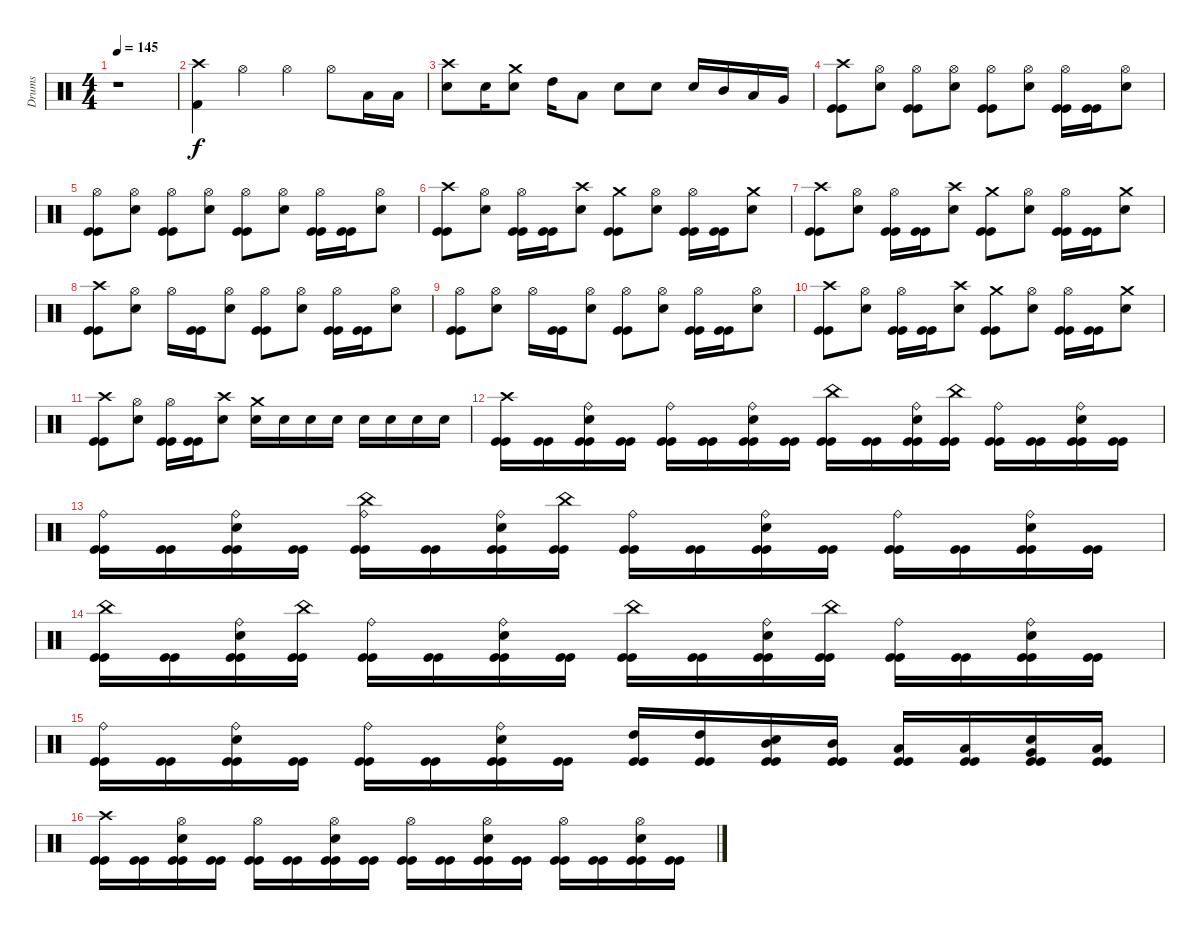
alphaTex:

\track ("Drums" "Drums") {instrument percussion}
\staff {score}
\articulation defaults
\ts (4 4)
\tempo 145
\clef neutral
\ks c
r.1{dy f} |
("Crash high (hit)" "Kick (hit) 2").4 "Hi-Hat (open)".4 "Hi-Hat (open)".4 "Hi-Hat (open)".8 "Low Tom (hit)".16 "Low Floor Tom (hit)".16 |
("Snare (hit) 2" "Crash high (hit)").8 "Snare (hit) 2".16 ("Snare (hit) 2" "Crash medium (hit)").8 "High Tom (hit)".16 "Low Tom (hit)".8 "Snare (hit) 2".8 "Snare (hit) 2".8 "Snare (hit) 2".16 "Mid Tom (hit)".16 "Low Tom (hit)".16 "Very Low Tom (hit)".16 |
("Kick (hit)" "Kick (hit)" "Crash high (hit)").8 ("Snare (hit) 2" "Hi-Hat (open)").8 ("Kick (hit)" "Kick (hit)" "Hi-Hat (open)").8 ("Snare (hit) 2" "Hi-Hat (open)").8 ("Kick (hit)" "Kick (hit)" "Hi-Hat (open)").8 ("Snare (hit) 2" "Hi-Hat (open)").8 ("Kick (hit)" "Kick (hit)" "Hi-Hat (open)").16 ("Kick (hit)" "Kick (hit)").16 ("Snare (hit) 2" "Hi-Hat (open)").8 |
("Kick (hit)" "Kick (hit)" "Hi-Hat (open)").8 ("Snare (hit) 2" "Hi-Hat (open)").8 ("Kick (hit)" "Kick (hit)" "Hi-Hat (open)").8 ("Snare (hit) 2" "Hi-Hat (open)").8 ("Kick (hit)" "Kick (hit)" "Hi-Hat (open)").8 ("Snare (hit) 2" "Hi-Hat (open)").8 ("Kick (hit)" "Kick (hit)" "Hi-Hat (open)").16 ("Kick (hit)" "Kick (hit)").16 ("Snare (hit) 2" "Hi-Hat (open)").8 |
("Kick (hit)" "Kick (hit)" "Crash high (hit)").8 ("Snare (hit) 2" "Hi-Hat (open)").8 ("Kick (hit)" "Kick (hit)" "Hi-Hat (open)").16 ("Kick (hit)" "Kick (hit)").16 ("Snare (hit) 2" "Crash high (hit)").8 ("Kick (hit)" "Kick (hit)" "Crash medium (hit)").8 ("Snare (hit) 2" "Hi-Hat (open)").8 ("Kick (hit)" "Kick (hit)" "Hi-Hat (open)").16 ("Kick (hit)" "Kick (hit)").16 ("Snare (hit) 2" "Crash medium (hit)").8 |
("Kick (hit)" "Kick (hit)" "Crash high (hit)").8 ("Snare (hit) 2" "Hi-Hat (open)").8 ("Kick (hit)" "Kick (hit)" "Hi-Hat (open)").16 ("Kick (hit)" "Kick (hit)").16 ("Snare (hit) 2" "Crash high (hit)").8 ("Kick (hit)" "Kick (hit)" "Crash medium (hit)").8 ("Snare (hit) 2" "Hi-Hat (open)").8 ("Kick (hit)" "Kick (hit)" "Hi-Hat (open)").16 ("Kick (hit)" "Kick (hit)").16 ("Snare (hit) 2" "Crash medium (hit)").8 |
("Kick (hit)" "Kick (hit)" "Crash high (hit)").8 ("Snare (hit) 2" "Hi-Hat (open)").8 "Hi-Hat (open)".16 ("Kick (hit)" "Kick (hit)").16 ("Snare (hit) 2" "Hi-Hat (open)").8 ("Kick (hit)" "Kick (hit)" "Hi-Hat (open)").8 ("Snare (hit) 2" "Hi-Hat (open)").8 ("Kick (hit)" "Kick (hit)" "Hi-Hat (open)").16 ("Kick (hit)" "Kick (hit)").16 ("Snare (hit) 2" "Hi-Hat (open)").8 |
("Kick (hit)" "Kick (hit)" "Hi-Hat (open)").8 ("Snare (hit) 2" "Hi-Hat (open)").8 "Hi-Hat (open)".16 ("Kick (hit)" "Kick (hit)").16 ("Snare (hit) 2" "Hi-Hat (open)").8 ("Kick (hit)" "Kick (hit)" "Hi-Hat (open)").8 ("Snare (hit) 2" "Hi-Hat (open)").8 ("Kick (hit)" "Kick (hit)" "Hi-Hat (open)").16 ("Kick (hit)" "Kick (hit)").16 ("Snare (hit) 2" "Hi-Hat (open)").8 |
("Kick (hit)" "Kick (hit)" "Crash high (hit)").8 ("Snare (hit) 2" "Hi-Hat (open)").8 ("Kick (hit)" "Kick (hit)" "Hi-Hat (open)").16 ("Kick (hit)" "Kick (hit)").16 ("Snare (hit) 2" "Crash high (hit)").8 ("Kick (hit)" "Kick (hit)" "Crash medium (hit)").8 ("Snare (hit) 2" "Hi-Hat (open)").8 ("Kick (hit)" "Kick (hit)" "Hi-Hat (open)").16 ("Kick (hit)" "Kick (hit)").16 ("Snare (hit) 2" "Crash medium (hit)").8 |
("Kick (hit)" "Kick (hit)" "Crash high (hit)").8 ("Snare (hit) 2" "Hi-Hat (open)").8 ("Kick (hit)" "Kick (hit)" "Hi-Hat (open)").16 ("Kick (hit)" "Kick (hit)").16 ("Snare (hit) 2" "Crash high (hit)").8 ("Crash medium (hit)" "Snare (hit) 2").16 "Snare (hit) 2".16 "Snare (hit) 2".16 "Snare (hit) 2".16 "Snare (hit) 2".16 "Snare (hit) 2".16 "Snare (hit) 2".16 "Snare (hit) 2".16 |
("Kick (hit)" "Kick (hit)" "Crash high (hit)").16 ("Kick (hit)" "Kick (hit)").16 ("Kick (hit)" "Kick (hit)" "Snare (hit) 2" "Ride (bell)").16 ("Kick (hit)" "Kick (hit)").16 ("Kick (hit)" "Kick (hit)" "Ride (bell)").16 ("Kick (hit)" "Kick (hit)").16 ("Kick (hit)" "Kick (hit)" "Snare (hit) 2" "Ride (bell)").16 ("Kick (hit)" "Kick (hit)").16 ("Kick (hit)" "Kick (hit)" "China (hit)").16 ("Kick (hit)" "Kick (hit)").16 ("Kick (hit)" "Kick (hit)" "Snare (hit) 2" "Ride (bell)").16 ("Kick (hit)" "Kick (hit)" "China (hit)").16 ("Kick (hit)" "Kick (hit)" "Ride (bell)").16 ("Kick (hit)" "Kick (hit)").16 ("Kick (hit)" "Kick (hit)" "Snare (hit) 2" "Ride (bell)").16 ("Kick (hit)" "Kick (hit)").16 |
("Kick (hit)" "Kick (hit)" "Ride (bell)").16 ("Kick (hit)" "Kick (hit)").16 ("Kick (hit)" "Kick (hit)" "Snare (hit) 2" "Ride (bell)").16 ("Kick (hit)" "Kick (hit)").16 ("Kick (hit)" "Kick (hit)" "China (hit)" "Ride (bell)").16 ("Kick (hit)" "Kick (hit)").16 ("Kick (hit)" "Kick (hit)" "Snare (hit) 2" "Ride (bell)").16 ("Kick (hit)" "Kick (hit)" "China (hit)").16 ("Kick (hit)" "Kick (hit)" "Ride (bell)").16 ("Kick (hit)" "Kick (hit)").16 ("Kick (hit)" "Kick (hit)" "Snare (hit) 2" "Ride (bell)").16 ("Kick (hit)" "Kick (hit)").16 ("Kick (hit)" "Kick (hit)" "Ride (bell)").16 ("Kick (hit)" "Kick (hit)").16 ("Kick (hit)" "Kick (hit)" "Snare (hit) 2" "Ride (bell)").16 ("Kick (hit)" "Kick (hit)").16 |
("Kick (hit)" "Kick (hit)" "China (hit)").16 ("Kick (hit)" "Kick (hit)").16 ("Kick (hit)" "Kick (hit)" "Snare (hit) 2" "Ride (bell)").16 ("Kick (hit)" "Kick (hit)" "China (hit)").16 ("Kick (hit)" "Kick (hit)" "Ride (bell)").16 ("Kick (hit)" "Kick (hit)").16 ("Kick (hit)" "Kick (hit)" "Snare (hit) 2" "Ride (bell)").16 ("Kick (hit)" "Kick (hit)").16 ("Kick (hit)" "Kick (hit)" "China (hit)").16 ("Kick (hit)" "Kick (hit)").16 ("Kick (hit)" "Kick (hit)" "Snare (hit) 2" "Ride (bell)").16 ("Kick (hit)" "Kick (hit)" "China (hit)").16 ("Kick (hit)" "Kick (hit)" "Ride (bell)").16 ("Kick (hit)" "Kick (hit)").16 ("Kick (hit)" "Kick (hit)" "Snare (hit) 2" "Ride (bell)").16 ("Kick (hit)" "Kick (hit)").16 |
("Kick (hit)" "Kick (hit)" "Ride (bell)").16 ("Kick (hit)" "Kick (hit)").16 ("Kick (hit)" "Kick (hit)" "Snare (hit) 2" "Ride (bell)").16 ("Kick (hit)" "Kick (hit)").16 ("Kick (hit)" "Kick (hit)" "Ride (bell)").16 ("Kick (hit)" "Kick (hit)").16 ("Kick (hit)" "Kick (hit)" "Snare (hit) 2" "Ride (bell)").16 ("Kick (hit)" "Kick (hit)").16 ("Kick (hit)" "Kick (hit)" "High Tom (hit)").16 ("Kick (hit)" "Kick (hit)" "High Tom (hit)").16 ("Kick (hit)" "Kick (hit)" "Snare (hit) 2" "Mid Tom (hit)").16 ("Kick (hit)" "Kick (hit)" "Mid Tom (hit)").16 ("Kick (hit)" "Kick (hit)" "Low Tom (hit)").16 ("Kick (hit)" "Kick (hit)" "Low Tom (hit)").16 ("Kick (hit)" "Kick (hit)" "Snare (hit) 2" "Very Low Tom (hit)").16 ("Kick (hit)" "Kick (hit)" "Low Floor Tom (hit)").16 |
("Kick (hit)" "Kick (hit)" "Crash high (hit)").16 ("Kick (hit)" "Kick (hit)").16 ("Kick (hit)" "Kick (hit)" "Snare (hit) 2" "Hi-Hat (open)").16 ("Kick (hit)" "Kick (hit)").16 ("Kick (hit)" "Kick (hit)" "Hi-Hat (open)").16 ("Kick (hit)" "Kick (hit)").16 ("Kick (hit)" "Kick (hit)" "Snare (hit) 2" "Hi-Hat (open)").16 ("Kick (hit)" "Kick (hit)").16 ("Kick (hit)" "Kick (hit)" "Hi-Hat (open)").16 ("Kick (hit)" "Kick (hit)").16 ("Kick (hit)" "Kick (hit)" "Snare (hit) 2" "Hi-Hat (open)").16 ("Kick (hit)" "Kick (hit)").16 ("Kick (hit)" "Kick (hit)" "Hi-Hat (open)").16 ("Kick (hit)" "Kick (hit)").16 ("Kick (hit)" "Kick (hit)" "Snare (hit) 2" "Hi-Hat (open)").16 ("Kick (hit)" "Kick (hit)").16
